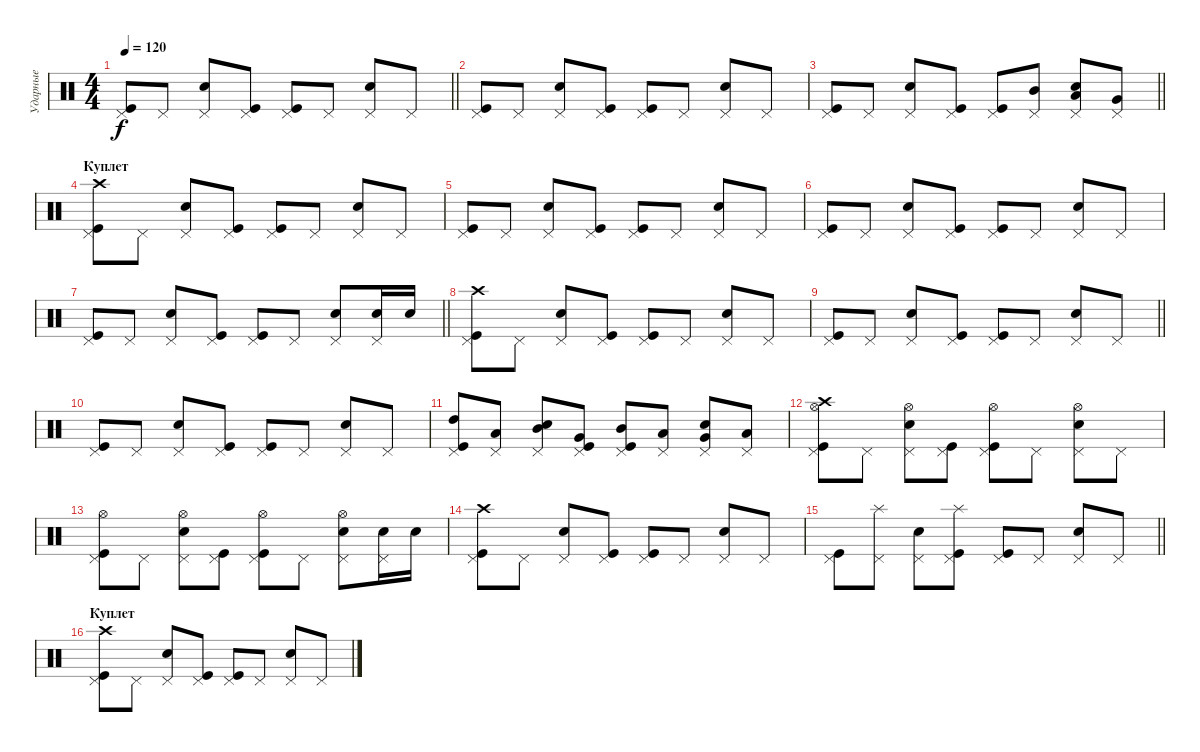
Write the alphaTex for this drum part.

\track ("Ударные" "Ударные") {instrument percussion}
\staff {score}
\articulation defaults
\ts (4 4)
\tempo 120
\clef neutral
\barLineRight lightlight
\ks c
("Pedal Hi-Hat (hit)" "Kick (hit)").8{dy f} "Pedal Hi-Hat (hit)".8 ("Pedal Hi-Hat (hit)" "Snare (hit) 2").8 ("Pedal Hi-Hat (hit)" "Kick (hit)").8 ("Pedal Hi-Hat (hit)" "Kick (hit)").8 "Pedal Hi-Hat (hit)".8 ("Pedal Hi-Hat (hit)" "Snare (hit) 2").8 "Pedal Hi-Hat (hit)".8 |
("Pedal Hi-Hat (hit)" "Kick (hit)").8 "Pedal Hi-Hat (hit)".8 ("Pedal Hi-Hat (hit)" "Snare (hit) 2").8 ("Pedal Hi-Hat (hit)" "Kick (hit)").8 ("Pedal Hi-Hat (hit)" "Kick (hit)").8 "Pedal Hi-Hat (hit)".8 ("Pedal Hi-Hat (hit)" "Snare (hit) 2").8 "Pedal Hi-Hat (hit)".8 |
\barLineRight lightlight
("Pedal Hi-Hat (hit)" "Kick (hit)").8 "Pedal Hi-Hat (hit)".8 ("Pedal Hi-Hat (hit)" "Snare (hit) 2").8 ("Pedal Hi-Hat (hit)" "Kick (hit)").8 ("Pedal Hi-Hat (hit)" "Kick (hit)").8 ("Pedal Hi-Hat (hit)" "Mid Tom (hit)").8 ("Pedal Hi-Hat (hit)" "Snare (hit) 2" "Low Tom (hit)").8 ("Pedal Hi-Hat (hit)" "Very Low Tom (hit)").8 |
\section ("" "Куплет")
("Pedal Hi-Hat (hit)" "Kick (hit)" "Crash high (hit)").8 "Pedal Hi-Hat (hit)".8 ("Pedal Hi-Hat (hit)" "Snare (hit) 2").8 ("Pedal Hi-Hat (hit)" "Kick (hit)").8 ("Pedal Hi-Hat (hit)" "Kick (hit)").8 "Pedal Hi-Hat (hit)".8 ("Pedal Hi-Hat (hit)" "Snare (hit) 2").8 "Pedal Hi-Hat (hit)".8 |
("Pedal Hi-Hat (hit)" "Kick (hit)").8 "Pedal Hi-Hat (hit)".8 ("Pedal Hi-Hat (hit)" "Snare (hit) 2").8 ("Pedal Hi-Hat (hit)" "Kick (hit)").8 ("Pedal Hi-Hat (hit)" "Kick (hit)").8 "Pedal Hi-Hat (hit)".8 ("Pedal Hi-Hat (hit)" "Snare (hit) 2").8 "Pedal Hi-Hat (hit)".8 |
("Pedal Hi-Hat (hit)" "Kick (hit)").8 "Pedal Hi-Hat (hit)".8 ("Pedal Hi-Hat (hit)" "Snare (hit) 2").8 ("Pedal Hi-Hat (hit)" "Kick (hit)").8 ("Pedal Hi-Hat (hit)" "Kick (hit)").8 "Pedal Hi-Hat (hit)".8 ("Pedal Hi-Hat (hit)" "Snare (hit) 2").8 "Pedal Hi-Hat (hit)".8 |
\barLineRight lightlight
("Pedal Hi-Hat (hit)" "Kick (hit)").8 "Pedal Hi-Hat (hit)".8 ("Pedal Hi-Hat (hit)" "Snare (hit) 2").8 ("Pedal Hi-Hat (hit)" "Kick (hit)").8 ("Pedal Hi-Hat (hit)" "Kick (hit)").8 "Pedal Hi-Hat (hit)".8 ("Pedal Hi-Hat (hit)" "Snare (hit) 2").8 ("Pedal Hi-Hat (hit)" "Snare (hit) 2").16 "Snare (hit) 2".16 |
("Pedal Hi-Hat (hit)" "Kick (hit)" "Crash high (hit)").8 "Pedal Hi-Hat (hit)".8 ("Pedal Hi-Hat (hit)" "Snare (hit) 2").8 ("Pedal Hi-Hat (hit)" "Kick (hit)").8 ("Pedal Hi-Hat (hit)" "Kick (hit)").8 "Pedal Hi-Hat (hit)".8 ("Pedal Hi-Hat (hit)" "Snare (hit) 2").8 "Pedal Hi-Hat (hit)".8 |
\barLineRight lightlight
("Pedal Hi-Hat (hit)" "Kick (hit)").8 "Pedal Hi-Hat (hit)".8 ("Pedal Hi-Hat (hit)" "Snare (hit) 2").8 ("Pedal Hi-Hat (hit)" "Kick (hit)").8 ("Pedal Hi-Hat (hit)" "Kick (hit)").8 "Pedal Hi-Hat (hit)".8 ("Pedal Hi-Hat (hit)" "Snare (hit) 2").8 "Pedal Hi-Hat (hit)".8 |
("Pedal Hi-Hat (hit)" "Kick (hit)").8 "Pedal Hi-Hat (hit)".8 ("Pedal Hi-Hat (hit)" "Snare (hit) 2").8 ("Pedal Hi-Hat (hit)" "Kick (hit)").8 ("Pedal Hi-Hat (hit)" "Kick (hit)").8 "Pedal Hi-Hat (hit)".8 ("Pedal Hi-Hat (hit)" "Snare (hit) 2").8 "Pedal Hi-Hat (hit)".8 |
("Pedal Hi-Hat (hit)" "Kick (hit)" "High Tom (hit)").8 ("Pedal Hi-Hat (hit)" "Low Tom (hit)").8 ("Pedal Hi-Hat (hit)" "Snare (hit) 2" "Mid Tom (hit)").8 ("Pedal Hi-Hat (hit)" "Kick (hit)" "Very Low Tom (hit)").8 ("Pedal Hi-Hat (hit)" "Kick (hit)" "Mid Tom (hit)").8 ("Pedal Hi-Hat (hit)" "Low Tom (hit)").8 ("Pedal Hi-Hat (hit)" "Snare (hit) 2" "Very Low Tom (hit)").8 ("Pedal Hi-Hat (hit)" "Low Floor Tom (hit)").8 |
("Pedal Hi-Hat (hit)" "Kick (hit)" "Hi-Hat (open)" "Crash high (hit)").8 "Pedal Hi-Hat (hit)".8 ("Pedal Hi-Hat (hit)" "Snare (hit) 2" "Hi-Hat (open)").8 ("Pedal Hi-Hat (hit)" "Kick (hit)").8 ("Pedal Hi-Hat (hit)" "Kick (hit)" "Hi-Hat (open)").8 "Pedal Hi-Hat (hit)".8 ("Pedal Hi-Hat (hit)" "Snare (hit) 2" "Hi-Hat (open)").8 "Pedal Hi-Hat (hit)".8 |
("Pedal Hi-Hat (hit)" "Kick (hit)" "Hi-Hat (open)").8 "Pedal Hi-Hat (hit)".8 ("Pedal Hi-Hat (hit)" "Snare (hit) 2" "Hi-Hat (open)").8 ("Pedal Hi-Hat (hit)" "Kick (hit)").8 ("Pedal Hi-Hat (hit)" "Kick (hit)" "Hi-Hat (open)").8 "Pedal Hi-Hat (hit)".8 ("Pedal Hi-Hat (hit)" "Snare (hit) 2" "Hi-Hat (open)").8 ("Pedal Hi-Hat (hit)" "Snare (hit) 2").16 "Snare (hit) 2".16 |
("Pedal Hi-Hat (hit)" "Kick (hit)" "Crash high (hit)").8 "Pedal Hi-Hat (hit)".8 ("Pedal Hi-Hat (hit)" "Snare (hit) 2").8 ("Pedal Hi-Hat (hit)" "Kick (hit)").8 ("Pedal Hi-Hat (hit)" "Kick (hit)").8 "Pedal Hi-Hat (hit)".8 ("Pedal Hi-Hat (hit)" "Snare (hit) 2").8 "Pedal Hi-Hat (hit)".8 |
\barLineRight lightlight
("Pedal Hi-Hat (hit)" "Kick (hit)").8 ("Pedal Hi-Hat (hit)" "Splash (hit)").8 ("Pedal Hi-Hat (hit)" "Snare (hit) 2").8 ("Pedal Hi-Hat (hit)" "Kick (hit)" "Splash (hit)").8 ("Pedal Hi-Hat (hit)" "Kick (hit)").8 "Pedal Hi-Hat (hit)".8 ("Pedal Hi-Hat (hit)" "Snare (hit) 2").8 "Pedal Hi-Hat (hit)".8 |
\section ("" "Куплет")
("Pedal Hi-Hat (hit)" "Kick (hit)" "Crash high (hit)").8 "Pedal Hi-Hat (hit)".8 ("Pedal Hi-Hat (hit)" "Snare (hit) 2").8 ("Pedal Hi-Hat (hit)" "Kick (hit)").8 ("Pedal Hi-Hat (hit)" "Kick (hit)").8 "Pedal Hi-Hat (hit)".8 ("Pedal Hi-Hat (hit)" "Snare (hit) 2").8 "Pedal Hi-Hat (hit)".8
